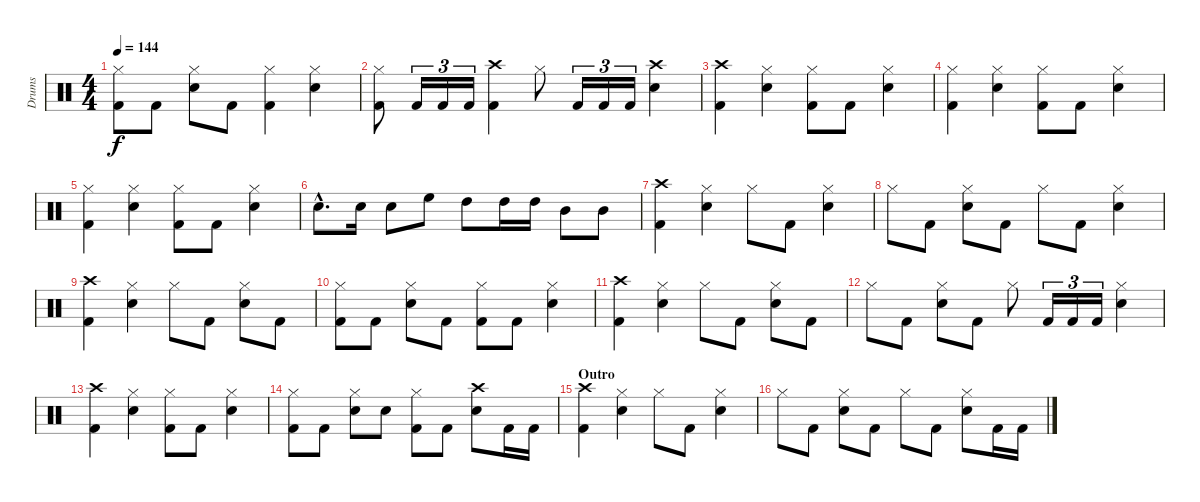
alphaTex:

\track ("Drums" "Drums") {instrument percussion}
\staff {score}
\articulation defaults
\ts (4 4)
\tempo 144
\clef neutral
\ks c
("Hi-Hat (closed)" "Kick (hit) 2").8{dy f} "Kick (hit) 2".8 ("Hi-Hat (closed)" "Snare (hit) 2").8 "Kick (hit) 2".8 ("Hi-Hat (closed)" "Kick (hit) 2").4 ("Hi-Hat (closed)" "Snare (hit) 2").4 |
("Hi-Hat (closed)" "Kick (hit) 2").8 "Kick (hit) 2".16{tu (3 2)} "Kick (hit) 2".16{tu (3 2)} "Kick (hit) 2".16{tu (3 2)} ("Crash high (hit)" "Kick (hit) 2").4 "Hi-Hat (closed)".8 "Kick (hit) 2".16{tu (3 2)} "Kick (hit) 2".16{tu (3 2)} "Kick (hit) 2".16{tu (3 2)} ("Crash high (hit)" "Snare (hit) 2").4 |
("Crash high (hit)" "Kick (hit) 2").4 ("Hi-Hat (closed)" "Snare (hit) 2").4 ("Hi-Hat (closed)" "Kick (hit) 2").8 "Kick (hit) 2".8 ("Hi-Hat (closed)" "Snare (hit) 2").4 |
("Hi-Hat (closed)" "Kick (hit) 2").4 ("Hi-Hat (closed)" "Snare (hit) 2").4 ("Hi-Hat (closed)" "Kick (hit) 2").8 "Kick (hit) 2".8 ("Hi-Hat (closed)" "Snare (hit) 2").4 |
("Hi-Hat (closed)" "Kick (hit) 2").4 ("Hi-Hat (closed)" "Snare (hit) 2").4 ("Hi-Hat (closed)" "Kick (hit) 2").8 "Kick (hit) 2".8 ("Hi-Hat (closed)" "Snare (hit) 2").4 |
"Snare (hit) 2"{hac}.8{d} "Snare (hit) 2".16 "Snare (hit) 2".8 "High Floor Tom (hit)".8 "High Tom (hit)".8 "High Tom (hit)".16 "High Tom (hit)".16 "Mid Tom (hit)".8 "Mid Tom (hit)".8 |
("Crash high (hit)" "Kick (hit) 2").4 ("Hi-Hat (closed)" "Snare (hit) 2").4 "Hi-Hat (closed)".8 "Kick (hit) 2".8 ("Hi-Hat (closed)" "Snare (hit) 2").4 |
"Hi-Hat (closed)".8 "Kick (hit) 2".8 ("Hi-Hat (closed)" "Snare (hit) 2").8 "Kick (hit) 2".8 "Hi-Hat (closed)".8 "Kick (hit) 2".8 ("Hi-Hat (closed)" "Snare (hit) 2").4 |
("Crash high (hit)" "Kick (hit) 2").4 ("Hi-Hat (closed)" "Snare (hit) 2").4 "Hi-Hat (closed)".8 "Kick (hit) 2".8 ("Hi-Hat (closed)" "Snare (hit) 2").8 "Kick (hit) 2".8 |
("Hi-Hat (closed)" "Kick (hit) 2").8 "Kick (hit) 2".8 ("Hi-Hat (closed)" "Snare (hit) 2").8 "Kick (hit) 2".8 ("Hi-Hat (closed)" "Kick (hit) 2").8 "Kick (hit) 2".8 ("Hi-Hat (closed)" "Snare (hit) 2").4 |
("Crash high (hit)" "Kick (hit) 2").4 ("Hi-Hat (closed)" "Snare (hit) 2").4 "Hi-Hat (closed)".8 "Kick (hit) 2".8 ("Hi-Hat (closed)" "Snare (hit) 2").8 "Kick (hit) 2".8 |
"Hi-Hat (closed)".8 "Kick (hit) 2".8 ("Hi-Hat (closed)" "Snare (hit) 2").8 "Kick (hit) 2".8 "Hi-Hat (closed)".8 "Kick (hit) 2".16{tu (3 2)} "Kick (hit) 2".16{tu (3 2)} "Kick (hit) 2".16{tu (3 2)} ("Hi-Hat (closed)" "Snare (hit) 2").4 |
("Crash high (hit)" "Kick (hit) 2").4 ("Hi-Hat (closed)" "Snare (hit) 2").4 ("Hi-Hat (closed)" "Kick (hit) 2").8 "Kick (hit) 2".8 ("Hi-Hat (closed)" "Snare (hit) 2").4 |
("Hi-Hat (closed)" "Kick (hit) 2").8 "Kick (hit) 2".8 ("Hi-Hat (closed)" "Snare (hit) 2").8 "Snare (hit) 2".8 ("Hi-Hat (closed)" "Kick (hit) 2").8 "Kick (hit) 2".8 ("Crash high (hit)" "Snare (hit) 2").8 "Kick (hit) 2".16 "Kick (hit) 2".16 |
\section ("" "Outro")
("Crash high (hit)" "Kick (hit) 2").4 ("Hi-Hat (closed)" "Snare (hit) 2").4 "Hi-Hat (closed)".8 "Kick (hit) 2".8 ("Hi-Hat (closed)" "Snare (hit) 2").4 |
"Hi-Hat (closed)".8 "Kick (hit) 2".8 ("Hi-Hat (closed)" "Snare (hit) 2").8 "Kick (hit) 2".8 "Hi-Hat (closed)".8 "Kick (hit) 2".8 ("Hi-Hat (closed)" "Snare (hit) 2").8 "Kick (hit) 2".16 "Kick (hit) 2".16
